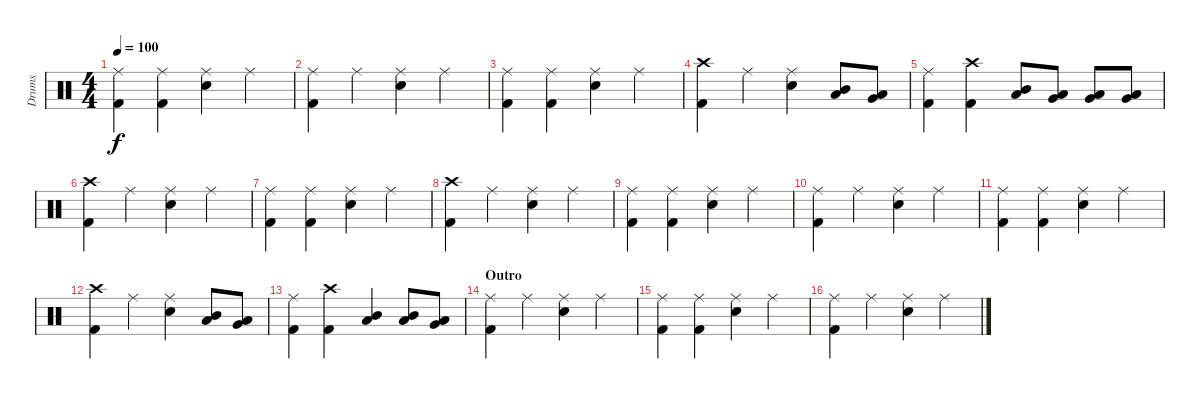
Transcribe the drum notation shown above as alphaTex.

\track ("Drums" "Drums") {instrument percussion}
\staff {score}
\articulation defaults
\ts (4 4)
\tempo 100
\clef neutral
\ks c
("Ride (middle)" "Kick (hit) 2").4{dy f} ("Ride (middle)" "Kick (hit) 2").4 ("Ride (middle)" "Snare (hit) 2").4 "Ride (middle)".4 |
("Ride (middle)" "Kick (hit) 2").4 "Ride (middle)".4 ("Ride (middle)" "Snare (hit) 2").4 "Ride (middle)".4 |
("Ride (middle)" "Kick (hit) 2").4 ("Ride (middle)" "Kick (hit) 2").4 ("Ride (middle)" "Snare (hit) 2").4 "Ride (middle)".4 |
("Crash high (hit)" "Kick (hit) 2").4 "Ride (middle)".4 ("Ride (middle)" "Snare (hit) 2").4 ("Low Tom (hit)" "Mid Tom (hit)").8 ("Very Low Tom (hit)" "Low Tom (hit)").8 |
("Ride (middle)" "Kick (hit) 2").4 ("Crash high (hit)" "Kick (hit) 2").4 ("Low Tom (hit)" "Mid Tom (hit)").8 ("Very Low Tom (hit)" "Low Tom (hit)").8 ("Very Low Tom (hit)" "Low Tom (hit)").8 ("Low Floor Tom (hit)" "Very Low Tom (hit)").8 |
("Crash high (hit)" "Kick (hit) 2").4 "Ride (middle)".4 ("Ride (middle)" "Snare (hit) 2").4 "Ride (middle)".4 |
("Ride (middle)" "Kick (hit) 2").4 ("Ride (middle)" "Kick (hit) 2").4 ("Ride (middle)" "Snare (hit) 2").4 "Ride (middle)".4 |
("Crash high (hit)" "Kick (hit) 2").4 "Ride (middle)".4 ("Ride (middle)" "Snare (hit) 2").4 "Ride (middle)".4 |
("Ride (middle)" "Kick (hit) 2").4 ("Ride (middle)" "Kick (hit) 2").4 ("Ride (middle)" "Snare (hit) 2").4 "Ride (middle)".4 |
("Ride (middle)" "Kick (hit) 2").4 "Ride (middle)".4 ("Ride (middle)" "Snare (hit) 2").4 "Ride (middle)".4 |
("Ride (middle)" "Kick (hit) 2").4 ("Ride (middle)" "Kick (hit) 2").4 ("Ride (middle)" "Snare (hit) 2").4 "Ride (middle)".4 |
("Crash high (hit)" "Kick (hit) 2").4 "Ride (middle)".4 ("Ride (middle)" "Snare (hit) 2").4 ("Low Tom (hit)" "Mid Tom (hit)").8 ("Very Low Tom (hit)" "Low Tom (hit)").8 |
("Ride (middle)" "Kick (hit) 2").4 ("Crash high (hit)" "Kick (hit) 2").4 ("Low Tom (hit)" "Mid Tom (hit)").4 ("Low Tom (hit)" "Mid Tom (hit)").8 ("Very Low Tom (hit)" "Low Tom (hit)").8 |
\section ("" "Outro")
("Ride (middle)" "Kick (hit) 2").4 "Ride (middle)".4 ("Ride (middle)" "Snare (hit) 2").4 "Ride (middle)".4 |
("Ride (middle)" "Kick (hit) 2").4 ("Ride (middle)" "Kick (hit) 2").4 ("Ride (middle)" "Snare (hit) 2").4 "Ride (middle)".4 |
("Ride (middle)" "Kick (hit) 2").4 "Ride (middle)".4 ("Ride (middle)" "Snare (hit) 2").4 "Ride (middle)".4
